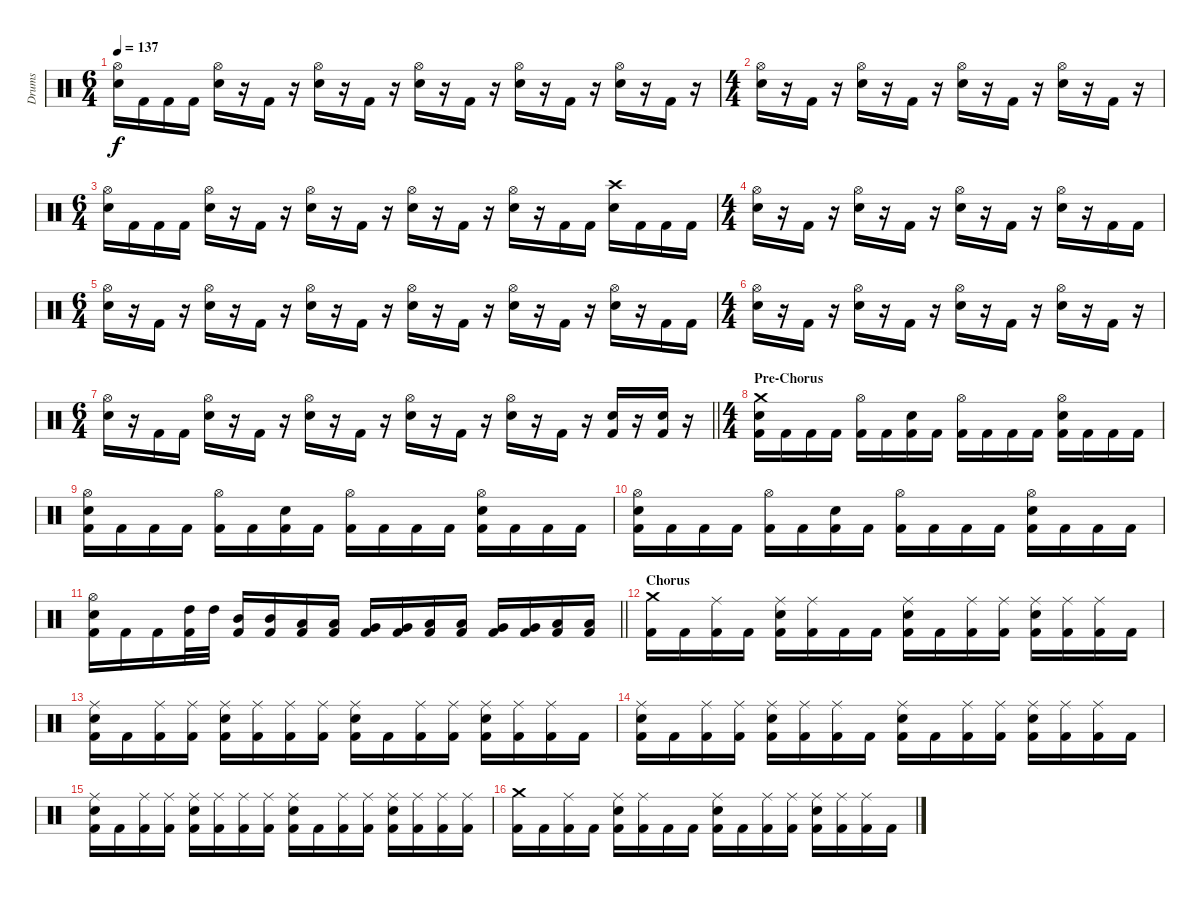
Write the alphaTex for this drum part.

\track ("Drums" "Drums") {instrument percussion}
\staff {score}
\articulation defaults
\ts (6 4)
\tempo 137
\clef neutral
\ks c
("Hi-Hat (open)" "Electric Snare (hit)").16{dy f} "Kick (hit) 2".16 "Kick (hit) 2".16 "Kick (hit) 2".16 ("Hi-Hat (open)" "Electric Snare (hit)").16 r.16 "Kick (hit) 2".16 r.16 ("Hi-Hat (open)" "Electric Snare (hit)").16 r.16 "Kick (hit) 2".16 r.16 ("Hi-Hat (open)" "Electric Snare (hit)").16 r.16 "Kick (hit) 2".16 r.16 ("Hi-Hat (open)" "Electric Snare (hit)").16 r.16 "Kick (hit) 2".16 r.16 ("Hi-Hat (open)" "Electric Snare (hit)").16 r.16 "Kick (hit) 2".16 r.16 |
\ts (4 4)
("Hi-Hat (open)" "Electric Snare (hit)").16 r.16 "Kick (hit) 2".16 r.16 ("Hi-Hat (open)" "Electric Snare (hit)").16 r.16 "Kick (hit) 2".16 r.16 ("Hi-Hat (open)" "Electric Snare (hit)").16 r.16 "Kick (hit) 2".16 r.16 ("Hi-Hat (open)" "Electric Snare (hit)").16 r.16 "Kick (hit) 2".16 r.16 |
\ts (6 4)
("Hi-Hat (open)" "Electric Snare (hit)").16 "Kick (hit) 2".16 "Kick (hit) 2".16 "Kick (hit) 2".16 ("Hi-Hat (open)" "Electric Snare (hit)").16 r.16 "Kick (hit) 2".16 r.16 ("Hi-Hat (open)" "Electric Snare (hit)").16 r.16 "Kick (hit) 2".16 r.16 ("Hi-Hat (open)" "Electric Snare (hit)").16 r.16 "Kick (hit) 2".16 r.16 ("Hi-Hat (open)" "Electric Snare (hit)").16 r.16 "Kick (hit) 2".16 "Kick (hit) 2".16 ("Crash high (hit)" "Electric Snare (hit)").16 "Kick (hit) 2".16 "Kick (hit) 2".16 "Kick (hit) 2".16 |
\ts (4 4)
("Hi-Hat (open)" "Electric Snare (hit)").16 r.16 "Kick (hit) 2".16 r.16 ("Hi-Hat (open)" "Electric Snare (hit)").16 r.16 "Kick (hit) 2".16 r.16 ("Hi-Hat (open)" "Electric Snare (hit)").16 r.16 "Kick (hit) 2".16 r.16 ("Hi-Hat (open)" "Electric Snare (hit)").16 r.16 "Kick (hit) 2".16 "Kick (hit) 2".16 |
\ts (6 4)
("Hi-Hat (open)" "Electric Snare (hit)").16 r.16 "Kick (hit) 2".16 r.16 ("Hi-Hat (open)" "Electric Snare (hit)").16 r.16 "Kick (hit) 2".16 r.16 ("Hi-Hat (open)" "Electric Snare (hit)").16 r.16 "Kick (hit) 2".16 r.16 ("Hi-Hat (open)" "Electric Snare (hit)").16 r.16 "Kick (hit) 2".16 r.16 ("Hi-Hat (open)" "Electric Snare (hit)").16 r.16 "Kick (hit) 2".16 r.16 ("Hi-Hat (open)" "Electric Snare (hit)").16 r.16 "Kick (hit) 2".16 "Kick (hit) 2".16 |
\ts (4 4)
("Hi-Hat (open)" "Electric Snare (hit)").16 r.16 "Kick (hit) 2".16 r.16 ("Hi-Hat (open)" "Electric Snare (hit)").16 r.16 "Kick (hit) 2".16 r.16 ("Hi-Hat (open)" "Electric Snare (hit)").16 r.16 "Kick (hit) 2".16 r.16 ("Hi-Hat (open)" "Electric Snare (hit)").16 r.16 "Kick (hit) 2".16 r.16 |
\ts (6 4)
\barLineRight lightlight
("Hi-Hat (open)" "Electric Snare (hit)").16 r.16 "Kick (hit) 2".16 "Kick (hit) 2".16 ("Hi-Hat (open)" "Electric Snare (hit)").16 r.16 "Kick (hit) 2".16 r.16 ("Hi-Hat (open)" "Electric Snare (hit)").16 r.16 "Kick (hit) 2".16 r.16 ("Hi-Hat (open)" "Electric Snare (hit)").16 r.16 "Kick (hit) 2".16 r.16 ("Hi-Hat (open)" "Electric Snare (hit)").16 r.16 "Kick (hit) 2".16 r.16 ("Electric Snare (hit)" "Kick (hit) 2").16 r.16 ("Electric Snare (hit)" "Kick (hit) 2").16 r.16 |
\ts (4 4)
\section ("" "Pre-Chorus")
("Crash medium (hit)" "Electric Snare (hit)" "Kick (hit) 2").16 "Kick (hit) 2".16 "Kick (hit) 2".16 "Kick (hit) 2".16 ("Hi-Hat (open)" "Kick (hit) 2").16 "Kick (hit) 2".16 ("Electric Snare (hit)" "Kick (hit) 2").16 "Kick (hit) 2".16 ("Hi-Hat (open)" "Kick (hit) 2").16 "Kick (hit) 2".16 "Kick (hit) 2".16 "Kick (hit) 2".16 ("Hi-Hat (open)" "Electric Snare (hit)" "Kick (hit) 2").16 "Kick (hit) 2".16 "Kick (hit) 2".16 "Kick (hit) 2".16 |
("Hi-Hat (open)" "Electric Snare (hit)" "Kick (hit) 2").16 "Kick (hit) 2".16 "Kick (hit) 2".16 "Kick (hit) 2".16 ("Hi-Hat (open)" "Kick (hit) 2").16 "Kick (hit) 2".16 ("Electric Snare (hit)" "Kick (hit) 2").16 "Kick (hit) 2".16 ("Hi-Hat (open)" "Kick (hit) 2").16 "Kick (hit) 2".16 "Kick (hit) 2".16 "Kick (hit) 2".16 ("Hi-Hat (open)" "Electric Snare (hit)" "Kick (hit) 2").16 "Kick (hit) 2".16 "Kick (hit) 2".16 "Kick (hit) 2".16 |
("Hi-Hat (open)" "Electric Snare (hit)" "Kick (hit) 2").16 "Kick (hit) 2".16 "Kick (hit) 2".16 "Kick (hit) 2".16 ("Hi-Hat (open)" "Kick (hit) 2").16 "Kick (hit) 2".16 ("Electric Snare (hit)" "Kick (hit) 2").16 "Kick (hit) 2".16 ("Hi-Hat (open)" "Kick (hit) 2").16 "Kick (hit) 2".16 "Kick (hit) 2".16 "Kick (hit) 2".16 ("Hi-Hat (open)" "Electric Snare (hit)" "Kick (hit) 2").16 "Kick (hit) 2".16 "Kick (hit) 2".16 "Kick (hit) 2".16 |
\barLineRight lightlight
("Hi-Hat (open)" "Electric Snare (hit)" "Kick (hit) 2").16 "Kick (hit) 2".16 "Kick (hit) 2".16 ("High Tom (hit)" "Kick (hit) 2").32 "High Tom (hit)".32 ("Mid Tom (hit)" "Kick (hit) 2").16 ("Mid Tom (hit)" "Kick (hit) 2").16 ("Low Tom (hit)" "Kick (hit) 2").16 ("Low Tom (hit)" "Kick (hit) 2").16 ("Very Low Tom (hit)" "Kick (hit) 2").16 ("Very Low Tom (hit)" "Kick (hit) 2").16 ("Low Tom (hit)" "Kick (hit) 2").16 ("Low Tom (hit)" "Kick (hit) 2").16 ("Very Low Tom (hit)" "Kick (hit) 2").16 ("Very Low Tom (hit)" "Kick (hit) 2").16 ("Low Floor Tom (hit)" "Kick (hit) 2").16 ("Low Floor Tom (hit)" "Kick (hit) 2").16 |
\section ("" "Chorus")
("Crash medium (hit)" "Kick (hit) 2").16 "Kick (hit) 2".16 ("Ride (middle)" "Kick (hit) 2").16 "Kick (hit) 2".16 ("Ride (middle)" "Electric Snare (hit)" "Kick (hit) 2").16 ("Ride (middle)" "Kick (hit) 2").16 "Kick (hit) 2".16 "Kick (hit) 2".16 ("Ride (middle)" "Electric Snare (hit)" "Kick (hit) 2").16 "Kick (hit) 2".16 ("Ride (middle)" "Kick (hit) 2").16 ("Ride (middle)" "Kick (hit) 2").16 ("Ride (middle)" "Electric Snare (hit)" "Kick (hit) 2").16 ("Ride (middle)" "Kick (hit) 2").16 ("Ride (middle)" "Kick (hit) 2").16 "Kick (hit) 2".16 |
("Ride (middle)" "Electric Snare (hit)" "Kick (hit) 2").16 "Kick (hit) 2".16 ("Ride (middle)" "Kick (hit) 2").16 ("Ride (middle)" "Kick (hit) 2").16 ("Ride (middle)" "Electric Snare (hit)" "Kick (hit) 2").16 ("Ride (middle)" "Kick (hit) 2").16 ("Ride (middle)" "Kick (hit) 2").16 ("Ride (middle)" "Kick (hit) 2").16 ("Ride (middle)" "Electric Snare (hit)" "Kick (hit) 2").16 "Kick (hit) 2".16 ("Ride (middle)" "Kick (hit) 2").16 ("Ride (middle)" "Kick (hit) 2").16 ("Ride (middle)" "Electric Snare (hit)" "Kick (hit) 2").16 ("Ride (middle)" "Kick (hit) 2").16 ("Ride (middle)" "Kick (hit) 2").16 "Kick (hit) 2".16 |
("Ride (middle)" "Electric Snare (hit)" "Kick (hit) 2").16 "Kick (hit) 2".16 ("Ride (middle)" "Kick (hit) 2").16 ("Ride (middle)" "Kick (hit) 2").16 ("Ride (middle)" "Electric Snare (hit)" "Kick (hit) 2").16 ("Ride (middle)" "Kick (hit) 2").16 ("Ride (middle)" "Kick (hit) 2").16 "Kick (hit) 2".16 ("Ride (middle)" "Electric Snare (hit)" "Kick (hit) 2").16 "Kick (hit) 2".16 ("Ride (middle)" "Kick (hit) 2").16 ("Ride (middle)" "Kick (hit) 2").16 ("Ride (middle)" "Electric Snare (hit)" "Kick (hit) 2").16 ("Ride (middle)" "Kick (hit) 2").16 ("Ride (middle)" "Kick (hit) 2").16 "Kick (hit) 2".16 |
("Ride (middle)" "Electric Snare (hit)" "Kick (hit) 2").16 "Kick (hit) 2".16 ("Ride (middle)" "Kick (hit) 2").16 ("Ride (middle)" "Kick (hit) 2").16 ("Ride (middle)" "Electric Snare (hit)" "Kick (hit) 2").16 ("Ride (middle)" "Kick (hit) 2").16 ("Ride (middle)" "Kick (hit) 2").16 ("Ride (middle)" "Kick (hit) 2").16 ("Ride (middle)" "Electric Snare (hit)" "Kick (hit) 2").16 "Kick (hit) 2".16 ("Ride (middle)" "Kick (hit) 2").16 ("Ride (middle)" "Kick (hit) 2").16 ("Ride (middle)" "Electric Snare (hit)" "Kick (hit) 2").16 ("Ride (middle)" "Kick (hit) 2").16 ("Ride (middle)" "Kick (hit) 2").16 ("Ride (middle)" "Kick (hit) 2").16 |
("Crash medium (hit)" "Kick (hit) 2").16 "Kick (hit) 2".16 ("Ride (middle)" "Kick (hit) 2").16 "Kick (hit) 2".16 ("Ride (middle)" "Electric Snare (hit)" "Kick (hit) 2").16 ("Ride (middle)" "Kick (hit) 2").16 "Kick (hit) 2".16 "Kick (hit) 2".16 ("Ride (middle)" "Electric Snare (hit)" "Kick (hit) 2").16 "Kick (hit) 2".16 ("Ride (middle)" "Kick (hit) 2").16 ("Ride (middle)" "Kick (hit) 2").16 ("Ride (middle)" "Electric Snare (hit)" "Kick (hit) 2").16 ("Ride (middle)" "Kick (hit) 2").16 ("Ride (middle)" "Kick (hit) 2").16 "Kick (hit) 2".16
